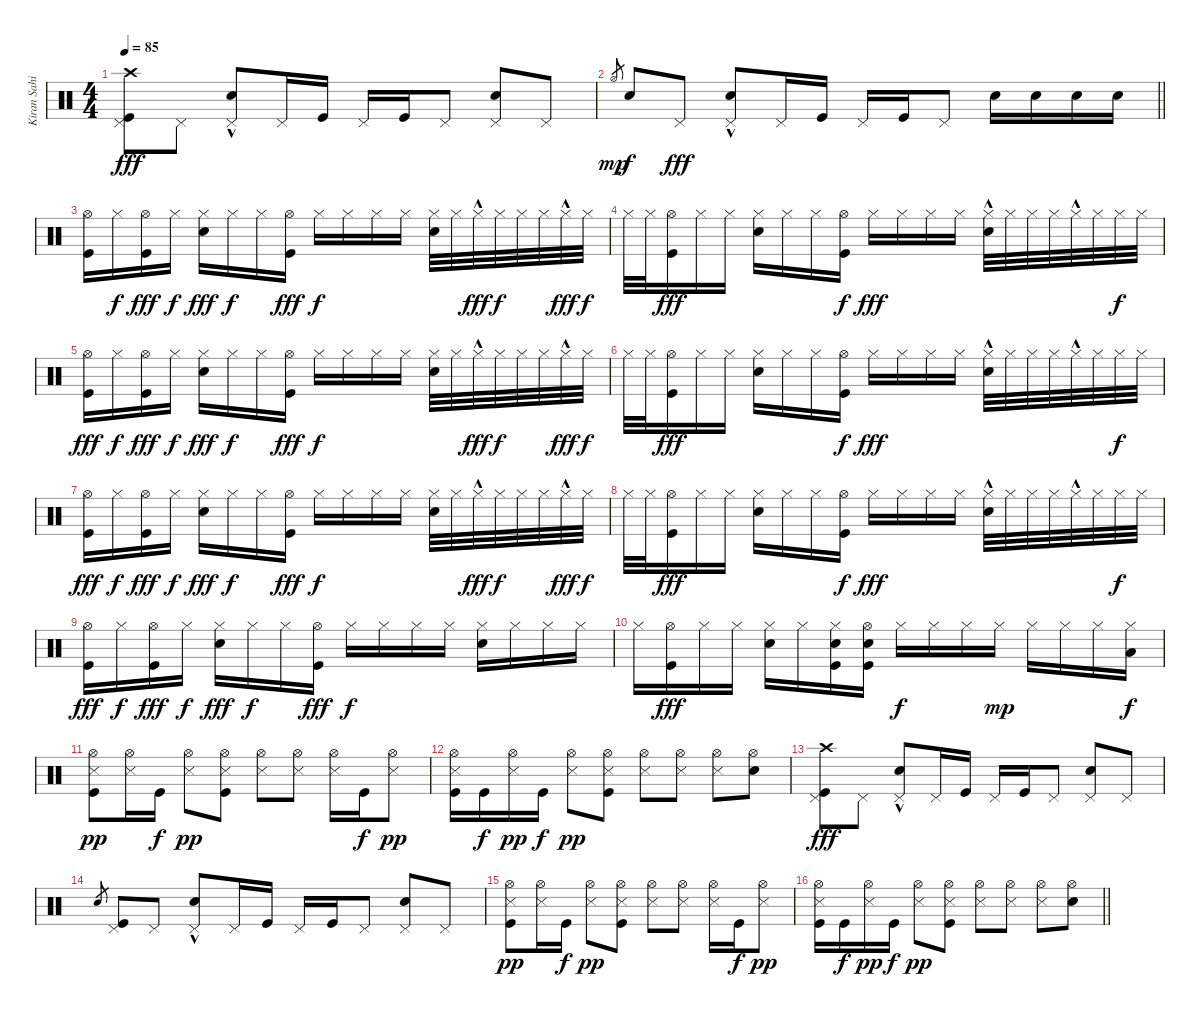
\track ("Kiran Sahi - Drums" "Kiran Sahi") {instrument percussion}
\staff {score}
\articulation defaults
\ts (4 4)
\tempo 85
\clef neutral
\ks c
("Kick (hit)" "Pedal Hi-Hat (hit)" "Crash high (hit)").8{dy fff} "Pedal Hi-Hat (hit)".8 ("Pedal Hi-Hat (hit)" "Snare (hit) 2"{hac}).8 "Pedal Hi-Hat (hit)".16 "Kick (hit)".16 "Pedal Hi-Hat (hit)".16 "Kick (hit)".16 "Pedal Hi-Hat (hit)".8 ("Snare (hit) 2" "Pedal Hi-Hat (hit)").8 "Pedal Hi-Hat (hit)".8 |
\barLineRight lightlight "Hi-Hat (open)".8{gr dy mp} "Snare (hit) 2".8{dy f} "Pedal Hi-Hat (hit)".8{dy fff}
("Pedal Hi-Hat (hit)" "Snare (hit) 2"{hac}).8 "Pedal Hi-Hat (hit)".16 "Kick (hit)".16 "Pedal Hi-Hat (hit)".16 "Kick (hit)".16 "Pedal Hi-Hat (hit)".8 "Snare (hit) 2".16 "Snare (hit) 2".16 "Snare (hit) 2".16 "Snare (hit) 2".16 |
("Kick (hit)" "Hi-Hat (open)").16 "Hi-Hat (closed)".16{dy f} ("Kick (hit)" "Hi-Hat (open)").16{dy fff} "Hi-Hat (closed)".16{dy f} ("Hi-Hat (closed)" "Snare (hit) 2").16{dy fff} "Hi-Hat (closed)".16{dy f} "Hi-Hat (closed)".16 ("Kick (hit)" "Hi-Hat (open)").16{dy fff} "Hi-Hat (closed)".16{dy f} "Hi-Hat (closed)".16 "Hi-Hat (closed)".16 "Hi-Hat (closed)".16 ("Hi-Hat (closed)" "Snare (hit) 2").32 "Hi-Hat (closed)".32 "Hi-Hat (closed)"{hac}.32{dy fff} "Hi-Hat (closed)".32{dy f} "Hi-Hat (closed)".32 "Hi-Hat (closed)".32 "Hi-Hat (closed)"{hac}.32{dy fff} "Hi-Hat (closed)".32{dy f} |
"Hi-Hat (closed)".32 "Hi-Hat (closed)".32 ("Kick (hit)" "Hi-Hat (open)").16{dy fff} "Hi-Hat (closed)".16 "Hi-Hat (closed)".16 ("Hi-Hat (closed)" "Snare (hit) 2").16 "Hi-Hat (closed)".16 "Hi-Hat (closed)".16 ("Hi-Hat (open)" "Kick (hit)").16{dy f} "Hi-Hat (closed)".16{dy fff} "Hi-Hat (closed)".16 "Hi-Hat (closed)".16 "Hi-Hat (closed)".16 ("Hi-Hat (closed)"{hac} "Snare (hit) 2").32 "Hi-Hat (closed)".32 "Hi-Hat (closed)".32 "Hi-Hat (closed)".32 "Hi-Hat (closed)"{hac}.32 "Hi-Hat (closed)".32 "Hi-Hat (closed)".32{dy f} "Hi-Hat (closed)".32 |
("Kick (hit)" "Hi-Hat (open)").16{dy fff} "Hi-Hat (closed)".16{dy f} ("Kick (hit)" "Hi-Hat (open)").16{dy fff} "Hi-Hat (closed)".16{dy f} ("Hi-Hat (closed)" "Snare (hit) 2").16{dy fff} "Hi-Hat (closed)".16{dy f} "Hi-Hat (closed)".16 ("Kick (hit)" "Hi-Hat (open)").16{dy fff} "Hi-Hat (closed)".16{dy f} "Hi-Hat (closed)".16 "Hi-Hat (closed)".16 "Hi-Hat (closed)".16 ("Hi-Hat (closed)" "Snare (hit) 2").32 "Hi-Hat (closed)".32 "Hi-Hat (closed)"{hac}.32{dy fff} "Hi-Hat (closed)".32{dy f} "Hi-Hat (closed)".32 "Hi-Hat (closed)".32 "Hi-Hat (closed)"{hac}.32{dy fff} "Hi-Hat (closed)".32{dy f} |
"Hi-Hat (closed)".32 "Hi-Hat (closed)".32 ("Kick (hit)" "Hi-Hat (open)").16{dy fff} "Hi-Hat (closed)".16 "Hi-Hat (closed)".16 ("Hi-Hat (closed)" "Snare (hit) 2").16 "Hi-Hat (closed)".16 "Hi-Hat (closed)".16 ("Hi-Hat (open)" "Kick (hit)").16{dy f} "Hi-Hat (closed)".16{dy fff} "Hi-Hat (closed)".16 "Hi-Hat (closed)".16 "Hi-Hat (closed)".16 ("Hi-Hat (closed)"{hac} "Snare (hit) 2").32 "Hi-Hat (closed)".32 "Hi-Hat (closed)".32 "Hi-Hat (closed)".32 "Hi-Hat (closed)"{hac}.32 "Hi-Hat (closed)".32 "Hi-Hat (closed)".32{dy f} "Hi-Hat (closed)".32 |
("Kick (hit)" "Hi-Hat (open)").16{dy fff} "Hi-Hat (closed)".16{dy f} ("Kick (hit)" "Hi-Hat (open)").16{dy fff} "Hi-Hat (closed)".16{dy f} ("Hi-Hat (closed)" "Snare (hit) 2").16{dy fff} "Hi-Hat (closed)".16{dy f} "Hi-Hat (closed)".16 ("Kick (hit)" "Hi-Hat (open)").16{dy fff} "Hi-Hat (closed)".16{dy f} "Hi-Hat (closed)".16 "Hi-Hat (closed)".16 "Hi-Hat (closed)".16 ("Hi-Hat (closed)" "Snare (hit) 2").32 "Hi-Hat (closed)".32 "Hi-Hat (closed)"{hac}.32{dy fff} "Hi-Hat (closed)".32{dy f} "Hi-Hat (closed)".32 "Hi-Hat (closed)".32 "Hi-Hat (closed)"{hac}.32{dy fff} "Hi-Hat (closed)".32{dy f} |
"Hi-Hat (closed)".32 "Hi-Hat (closed)".32 ("Kick (hit)" "Hi-Hat (open)").16{dy fff} "Hi-Hat (closed)".16 "Hi-Hat (closed)".16 ("Hi-Hat (closed)" "Snare (hit) 2").16 "Hi-Hat (closed)".16 "Hi-Hat (closed)".16 ("Hi-Hat (open)" "Kick (hit)").16{dy f} "Hi-Hat (closed)".16{dy fff} "Hi-Hat (closed)".16 "Hi-Hat (closed)".16 "Hi-Hat (closed)".16 ("Hi-Hat (closed)"{hac} "Snare (hit) 2").32 "Hi-Hat (closed)".32 "Hi-Hat (closed)".32 "Hi-Hat (closed)".32 "Hi-Hat (closed)"{hac}.32 "Hi-Hat (closed)".32 "Hi-Hat (closed)".32{dy f} "Hi-Hat (closed)".32 |
("Kick (hit)" "Hi-Hat (open)").16{dy fff} "Hi-Hat (closed)".16{dy f} ("Kick (hit)" "Hi-Hat (open)").16{dy fff} "Hi-Hat (closed)".16{dy f} ("Hi-Hat (closed)" "Snare (hit) 2").16{dy fff} "Hi-Hat (closed)".16{dy f} "Hi-Hat (closed)".16 ("Kick (hit)" "Hi-Hat (open)").16{dy fff} "Hi-Hat (closed)".16{dy f} "Hi-Hat (closed)".16 "Hi-Hat (closed)".16 "Hi-Hat (closed)".16 ("Hi-Hat (closed)" "Snare (hit) 2").16 "Hi-Hat (closed)".16 "Hi-Hat (closed)".16 "Hi-Hat (closed)".16 |
"Hi-Hat (closed)".16 ("Kick (hit)" "Hi-Hat (open)").16{dy fff} "Hi-Hat (closed)".16 "Hi-Hat (closed)".16 ("Hi-Hat (closed)" "Snare (hit) 2").16 "Hi-Hat (closed)".16 ("Hi-Hat (closed)" "Snare (hit) 2" "Kick (hit)").16 ("Hi-Hat (open)" "Kick (hit)" "Snare (hit) 2").16 "Hi-Hat (closed)".16{dy f} "Hi-Hat (closed)".16 "Hi-Hat (closed)".16 "Hi-Hat (closed)".16{dy mp} "Hi-Hat (closed)".16 "Hi-Hat (closed)".16 "Hi-Hat (closed)".16 ("Hi-Hat (closed)" "Low Floor Tom (hit)").16{dy f} |
("Snare (side stick) 3" "Kick (hit)" "Hi-Hat (open)").8{dy pp} ("Snare (side stick) 3" "Hi-Hat (open)").16 "Kick (hit)".16{dy f} ("Snare (side stick) 3" "Hi-Hat (open)").8{dy pp} ("Snare (side stick) 3" "Hi-Hat (open)" "Kick (hit)").8 ("Snare (side stick) 3" "Hi-Hat (open)").8 ("Snare (side stick) 3" "Hi-Hat (open)").8 ("Snare (side stick) 3" "Hi-Hat (open)").16 "Kick (hit)".16{dy f} ("Snare (side stick) 3" "Hi-Hat (open)").8{dy pp} |
("Snare (side stick) 3" "Kick (hit)" "Hi-Hat (open)").16 "Kick (hit)".16{dy f} ("Snare (side stick) 3" "Hi-Hat (open)").16{dy pp} "Kick (hit)".16{dy f} ("Snare (side stick) 3" "Hi-Hat (open)").8{dy pp} ("Snare (side stick) 3" "Hi-Hat (open)" "Kick (hit)").8 ("Snare (side stick) 3" "Hi-Hat (open)").8 ("Snare (side stick) 3" "Hi-Hat (open)").8 ("Snare (side stick) 3" "Hi-Hat (open)").8 ("Snare (hit) 2" "Hi-Hat (open)").8 |
("Kick (hit)" "Pedal Hi-Hat (hit)" "Crash high (hit)").8{dy fff} "Pedal Hi-Hat (hit)".8 ("Pedal Hi-Hat (hit)" "Snare (hit) 2"{hac}).8 "Pedal Hi-Hat (hit)".16 "Kick (hit)".16 "Pedal Hi-Hat (hit)".16 "Kick (hit)".16 "Pedal Hi-Hat (hit)".8 ("Snare (hit) 2" "Pedal Hi-Hat (hit)").8 "Pedal Hi-Hat (hit)".8 |
"Snare (hit) 2".8{gr} ("Kick (hit)" "Pedal Hi-Hat (hit)").8 "Pedal Hi-Hat (hit)".8 ("Pedal Hi-Hat (hit)" "Snare (hit) 2"{hac}).8 "Pedal Hi-Hat (hit)".16 "Kick (hit)".16 "Pedal Hi-Hat (hit)".16 "Kick (hit)".16 "Pedal Hi-Hat (hit)".8 ("Snare (hit) 2" "Pedal Hi-Hat (hit)").8 "Pedal Hi-Hat (hit)".8 |
("Snare (side stick) 3" "Kick (hit)" "Hi-Hat (open)").8{dy pp} ("Snare (side stick) 3" "Hi-Hat (open)").16 "Kick (hit)".16{dy f} ("Snare (side stick) 3" "Hi-Hat (open)").8{dy pp} ("Snare (side stick) 3" "Hi-Hat (open)" "Kick (hit)").8 ("Snare (side stick) 3" "Hi-Hat (open)").8 ("Snare (side stick) 3" "Hi-Hat (open)").8 ("Snare (side stick) 3" "Hi-Hat (open)").16 "Kick (hit)".16{dy f} ("Snare (side stick) 3" "Hi-Hat (open)").8{dy pp} |
\barLineRight lightlight
("Snare (side stick) 3" "Kick (hit)" "Hi-Hat (open)").16 "Kick (hit)".16{dy f} ("Snare (side stick) 3" "Hi-Hat (open)").16{dy pp} "Kick (hit)".16{dy f} ("Snare (side stick) 3" "Hi-Hat (open)").8{dy pp} ("Snare (side stick) 3" "Hi-Hat (open)" "Kick (hit)").8 ("Snare (side stick) 3" "Hi-Hat (open)").8 ("Snare (side stick) 3" "Hi-Hat (open)").8 ("Snare (side stick) 3" "Hi-Hat (open)").8 ("Snare (hit) 2" "Hi-Hat (open)").8
